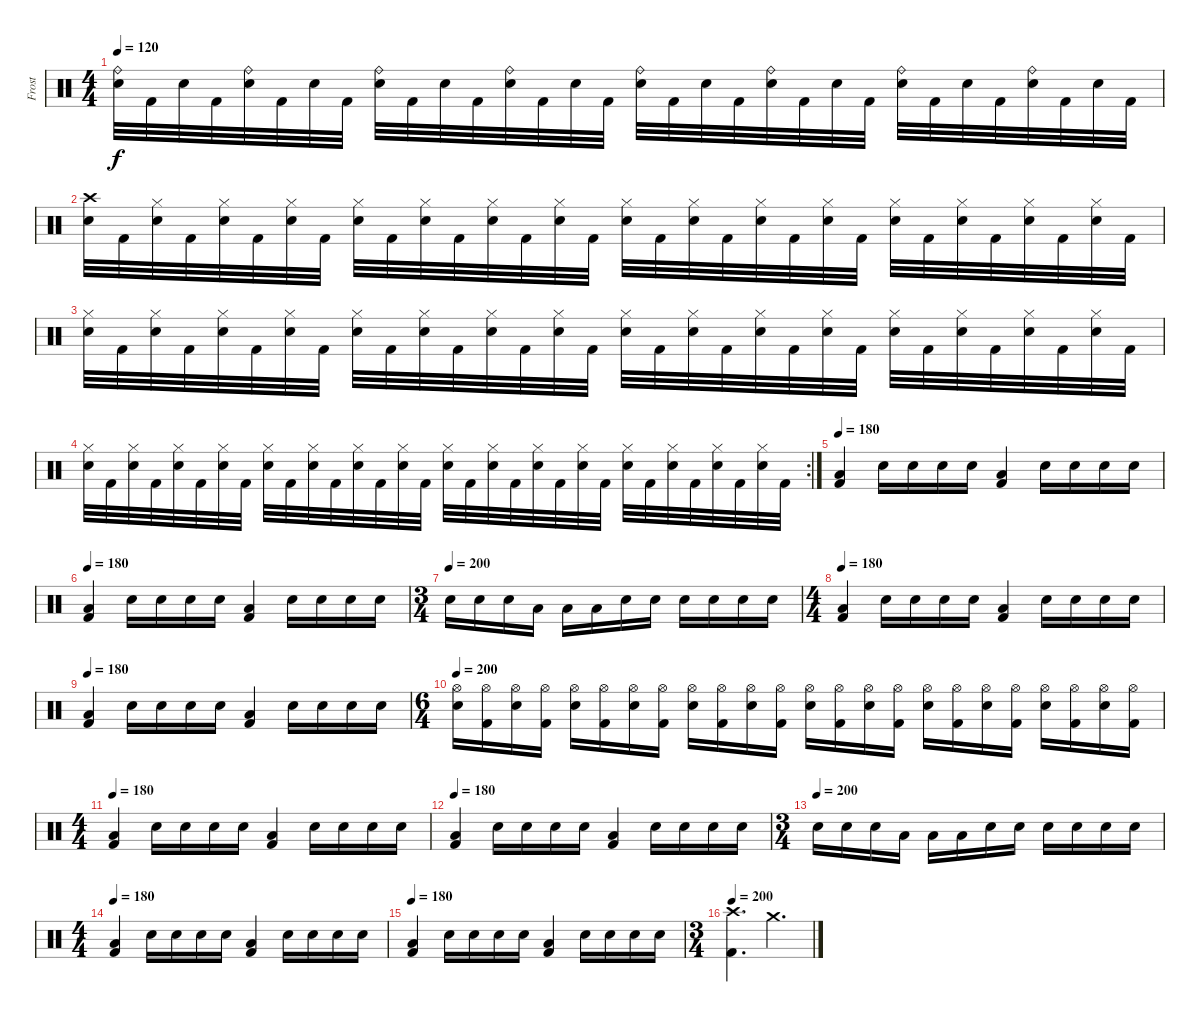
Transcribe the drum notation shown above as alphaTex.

\track ("Frost" "Frost") {instrument percussion}
\staff {score}
\articulation defaults
\ts (4 4)
\tempo 120
\clef neutral
\ks c
("Ride (bell)" "Snare (hit) 2").32{dy f} "Kick (hit) 2".32 "Snare (hit) 2".32 "Kick (hit) 2".32 ("Ride (bell)" "Snare (hit) 2").32 "Kick (hit) 2".32 "Snare (hit) 2".32 "Kick (hit) 2".32 ("Ride (bell)" "Snare (hit) 2").32 "Kick (hit) 2".32 "Snare (hit) 2".32 "Kick (hit) 2".32 ("Ride (bell)" "Snare (hit) 2").32 "Kick (hit) 2".32 "Snare (hit) 2".32 "Kick (hit) 2".32 ("Ride (bell)" "Snare (hit) 2").32 "Kick (hit) 2".32 "Snare (hit) 2".32 "Kick (hit) 2".32 ("Ride (bell)" "Snare (hit) 2").32 "Kick (hit) 2".32 "Snare (hit) 2".32 "Kick (hit) 2".32 ("Ride (bell)" "Snare (hit) 2").32 "Kick (hit) 2".32 "Snare (hit) 2".32 "Kick (hit) 2".32 ("Ride (bell)" "Snare (hit) 2").32 "Kick (hit) 2".32 "Snare (hit) 2".32 "Kick (hit) 2".32 |
("Crash high (hit)" "Snare (hit) 2").32 "Kick (hit) 2".32 ("Hi-Hat (closed)" "Snare (hit) 2").32 "Kick (hit) 2".32 ("Hi-Hat (closed)" "Snare (hit) 2").32 "Kick (hit) 2".32 ("Hi-Hat (closed)" "Snare (hit) 2").32 "Kick (hit) 2".32 ("Hi-Hat (closed)" "Snare (hit) 2").32 "Kick (hit) 2".32 ("Hi-Hat (closed)" "Snare (hit) 2").32 "Kick (hit) 2".32 ("Hi-Hat (closed)" "Snare (hit) 2").32 "Kick (hit) 2".32 ("Hi-Hat (closed)" "Snare (hit) 2").32 "Kick (hit) 2".32 ("Hi-Hat (closed)" "Snare (hit) 2").32 "Kick (hit) 2".32 ("Hi-Hat (closed)" "Snare (hit) 2").32 "Kick (hit) 2".32 ("Hi-Hat (closed)" "Snare (hit) 2").32 "Kick (hit) 2".32 ("Hi-Hat (closed)" "Snare (hit) 2").32 "Kick (hit) 2".32 ("Hi-Hat (closed)" "Snare (hit) 2").32 "Kick (hit) 2".32 ("Hi-Hat (closed)" "Snare (hit) 2").32 "Kick (hit) 2".32 ("Hi-Hat (closed)" "Snare (hit) 2").32 "Kick (hit) 2".32 ("Hi-Hat (closed)" "Snare (hit) 2").32 "Kick (hit) 2".32 |
("Hi-Hat (closed)" "Snare (hit) 2").32 "Kick (hit) 2".32 ("Hi-Hat (closed)" "Snare (hit) 2").32 "Kick (hit) 2".32 ("Hi-Hat (closed)" "Snare (hit) 2").32 "Kick (hit) 2".32 ("Hi-Hat (closed)" "Snare (hit) 2").32 "Kick (hit) 2".32 ("Hi-Hat (closed)" "Snare (hit) 2").32 "Kick (hit) 2".32 ("Hi-Hat (closed)" "Snare (hit) 2").32 "Kick (hit) 2".32 ("Hi-Hat (closed)" "Snare (hit) 2").32 "Kick (hit) 2".32 ("Hi-Hat (closed)" "Snare (hit) 2").32 "Kick (hit) 2".32 ("Hi-Hat (closed)" "Snare (hit) 2").32 "Kick (hit) 2".32 ("Hi-Hat (closed)" "Snare (hit) 2").32 "Kick (hit) 2".32 ("Hi-Hat (closed)" "Snare (hit) 2").32 "Kick (hit) 2".32 ("Hi-Hat (closed)" "Snare (hit) 2").32 "Kick (hit) 2".32 ("Hi-Hat (closed)" "Snare (hit) 2").32 "Kick (hit) 2".32 ("Hi-Hat (closed)" "Snare (hit) 2").32 "Kick (hit) 2".32 ("Hi-Hat (closed)" "Snare (hit) 2").32 "Kick (hit) 2".32 ("Hi-Hat (closed)" "Snare (hit) 2").32 "Kick (hit) 2".32 |
\rc 2
("Hi-Hat (closed)" "Snare (hit) 2").32 "Kick (hit) 2".32 ("Hi-Hat (closed)" "Snare (hit) 2").32 "Kick (hit) 2".32 ("Hi-Hat (closed)" "Snare (hit) 2").32 "Kick (hit) 2".32 ("Hi-Hat (closed)" "Snare (hit) 2").32 "Kick (hit) 2".32 ("Hi-Hat (closed)" "Snare (hit) 2").32 "Kick (hit) 2".32 ("Hi-Hat (closed)" "Snare (hit) 2").32 "Kick (hit) 2".32 ("Hi-Hat (closed)" "Snare (hit) 2").32 "Kick (hit) 2".32 ("Hi-Hat (closed)" "Snare (hit) 2").32 "Kick (hit) 2".32 ("Hi-Hat (closed)" "Snare (hit) 2").32 "Kick (hit) 2".32 ("Hi-Hat (closed)" "Snare (hit) 2").32 "Kick (hit) 2".32 ("Hi-Hat (closed)" "Snare (hit) 2").32 "Kick (hit) 2".32 ("Hi-Hat (closed)" "Snare (hit) 2").32 "Kick (hit) 2".32 ("Hi-Hat (closed)" "Snare (hit) 2").32 "Kick (hit) 2".32 ("Hi-Hat (closed)" "Snare (hit) 2").32 "Kick (hit) 2".32 ("Hi-Hat (closed)" "Snare (hit) 2").32 "Kick (hit) 2".32 ("Hi-Hat (closed)" "Snare (hit) 2").32 "Kick (hit) 2".32 |
\tempo 180
("Low Tom (hit)" "Kick (hit) 2").4 "Snare (hit) 2".16 "Snare (hit) 2".16 "Snare (hit) 2".16 "Snare (hit) 2".16 ("Low Tom (hit)" "Kick (hit) 2").4 "Snare (hit) 2".16 "Snare (hit) 2".16 "Snare (hit) 2".16 "Snare (hit) 2".16 |
\tempo 180
("Low Tom (hit)" "Kick (hit) 2").4 "Snare (hit) 2".16 "Snare (hit) 2".16 "Snare (hit) 2".16 "Snare (hit) 2".16 ("Low Tom (hit)" "Kick (hit) 2").4 "Snare (hit) 2".16 "Snare (hit) 2".16 "Snare (hit) 2".16 "Snare (hit) 2".16 |
\ts (3 4)
\tempo (200)
"Snare (hit) 2".16 "Snare (hit) 2".16 "Snare (hit) 2".16 "Low Tom (hit)".16 "Low Tom (hit)".16 "Low Tom (hit)".16 "Snare (hit) 2".16 "Snare (hit) 2".16 "Snare (hit) 2".16 "Snare (hit) 2".16 "Snare (hit) 2".16 "Snare (hit) 2".16 |
\ts (4 4)
\tempo 180
("Low Tom (hit)" "Kick (hit) 2").4 "Snare (hit) 2".16 "Snare (hit) 2".16 "Snare (hit) 2".16 "Snare (hit) 2".16 ("Low Tom (hit)" "Kick (hit) 2").4 "Snare (hit) 2".16 "Snare (hit) 2".16 "Snare (hit) 2".16 "Snare (hit) 2".16 |
\tempo 180
("Low Tom (hit)" "Kick (hit) 2").4 "Snare (hit) 2".16 "Snare (hit) 2".16 "Snare (hit) 2".16 "Snare (hit) 2".16 ("Low Tom (hit)" "Kick (hit) 2").4 "Snare (hit) 2".16 "Snare (hit) 2".16 "Snare (hit) 2".16 "Snare (hit) 2".16 |
\ts (6 4)
\tempo 200
("Hi-Hat (open)" "Snare (hit) 2").16 ("Hi-Hat (open)" "Kick (hit) 2").16 ("Hi-Hat (open)" "Snare (hit) 2").16 ("Hi-Hat (open)" "Kick (hit) 2").16 ("Hi-Hat (open)" "Snare (hit) 2").16 ("Hi-Hat (open)" "Kick (hit) 2").16 ("Hi-Hat (open)" "Snare (hit) 2").16 ("Hi-Hat (open)" "Kick (hit) 2").16 ("Hi-Hat (open)" "Snare (hit) 2").16 ("Hi-Hat (open)" "Kick (hit) 2").16 ("Hi-Hat (open)" "Snare (hit) 2").16 ("Hi-Hat (open)" "Kick (hit) 2").16 ("Hi-Hat (open)" "Snare (hit) 2").16 ("Hi-Hat (open)" "Kick (hit) 2").16 ("Hi-Hat (open)" "Snare (hit) 2").16 ("Hi-Hat (open)" "Kick (hit) 2").16 ("Hi-Hat (open)" "Snare (hit) 2").16 ("Hi-Hat (open)" "Kick (hit) 2").16 ("Hi-Hat (open)" "Snare (hit) 2").16 ("Hi-Hat (open)" "Kick (hit) 2").16 ("Hi-Hat (open)" "Snare (hit) 2").16 ("Hi-Hat (open)" "Kick (hit) 2").16 ("Hi-Hat (open)" "Snare (hit) 2").16 ("Hi-Hat (open)" "Kick (hit) 2").16 |
\ts (4 4)
\tempo 180
("Low Tom (hit)" "Kick (hit) 2").4 "Snare (hit) 2".16 "Snare (hit) 2".16 "Snare (hit) 2".16 "Snare (hit) 2".16 ("Low Tom (hit)" "Kick (hit) 2").4 "Snare (hit) 2".16 "Snare (hit) 2".16 "Snare (hit) 2".16 "Snare (hit) 2".16 |
\tempo 180
("Low Tom (hit)" "Kick (hit) 2").4 "Snare (hit) 2".16 "Snare (hit) 2".16 "Snare (hit) 2".16 "Snare (hit) 2".16 ("Low Tom (hit)" "Kick (hit) 2").4 "Snare (hit) 2".16 "Snare (hit) 2".16 "Snare (hit) 2".16 "Snare (hit) 2".16 |
\ts (3 4)
\tempo (200)
"Snare (hit) 2".16 "Snare (hit) 2".16 "Snare (hit) 2".16 "Low Tom (hit)".16 "Low Tom (hit)".16 "Low Tom (hit)".16 "Snare (hit) 2".16 "Snare (hit) 2".16 "Snare (hit) 2".16 "Snare (hit) 2".16 "Snare (hit) 2".16 "Snare (hit) 2".16 |
\ts (4 4)
\tempo 180
("Low Tom (hit)" "Kick (hit) 2").4 "Snare (hit) 2".16 "Snare (hit) 2".16 "Snare (hit) 2".16 "Snare (hit) 2".16 ("Low Tom (hit)" "Kick (hit) 2").4 "Snare (hit) 2".16 "Snare (hit) 2".16 "Snare (hit) 2".16 "Snare (hit) 2".16 |
\tempo 180
("Low Tom (hit)" "Kick (hit) 2").4 "Snare (hit) 2".16 "Snare (hit) 2".16 "Snare (hit) 2".16 "Snare (hit) 2".16 ("Low Tom (hit)" "Kick (hit) 2").4 "Snare (hit) 2".16 "Snare (hit) 2".16 "Snare (hit) 2".16 "Snare (hit) 2".16 |
\ts (3 4)
\tempo 200
("Crash high (hit)" "Kick (hit) 2").4{d} "Crash medium (hit)".4{d}
